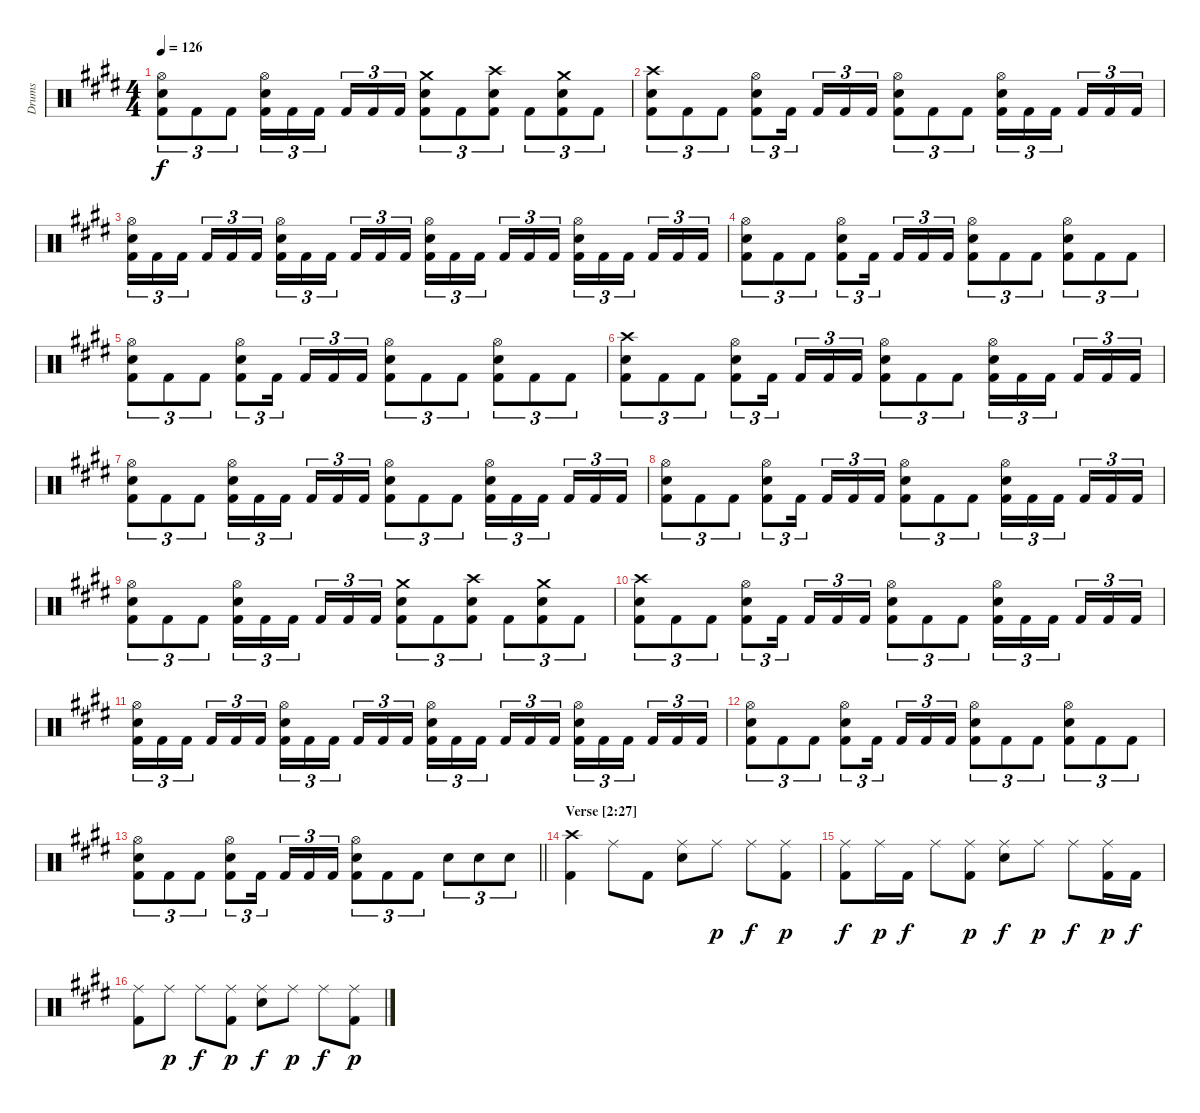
\track ("Drums" "Drums") {instrument percussion}
\staff {score}
\articulation defaults
\ts (4 4)
\tempo 126
\clef neutral
\ks c#minor
("Hi-Hat (open)" "Snare (hit) 2" "Kick (hit) 2").8{tu (3 2) dy f} "Kick (hit) 2".8{tu (3 2)} "Kick (hit) 2".8{tu (3 2)} ("Hi-Hat (open)" "Snare (hit) 2" "Kick (hit) 2").16{tu (3 2)} "Kick (hit) 2".16{tu (3 2)} "Kick (hit) 2".16{tu (3 2) beam splitsecondary} "Kick (hit) 2".16{tu (3 2)} "Kick (hit) 2".16{tu (3 2)} "Kick (hit) 2".16{tu (3 2)} ("Crash medium (hit)" "Snare (hit) 2" "Kick (hit) 2").8{tu (3 2)} "Kick (hit) 2".8{tu (3 2)} ("Crash high (hit)" "Snare (hit) 2" "Kick (hit) 2").8{tu (3 2)} "Kick (hit) 2".8{tu (3 2)} ("Crash medium (hit)" "Snare (hit) 2" "Kick (hit) 2").8{tu (3 2)} "Kick (hit) 2".8{tu (3 2)} |
("Crash high (hit)" "Snare (hit) 2" "Kick (hit) 2").8{tu (3 2)} "Kick (hit) 2".8{tu (3 2)} "Kick (hit) 2".8{tu (3 2)} ("Hi-Hat (open)" "Snare (hit) 2" "Kick (hit) 2").8{tu (3 2)} "Kick (hit) 2".16{tu (3 2) beam splitsecondary} "Kick (hit) 2".16{tu (3 2)} "Kick (hit) 2".16{tu (3 2)} "Kick (hit) 2".16{tu (3 2)} ("Hi-Hat (open)" "Snare (hit) 2" "Kick (hit) 2").8{tu (3 2)} "Kick (hit) 2".8{tu (3 2)} "Kick (hit) 2".8{tu (3 2)} ("Hi-Hat (open)" "Snare (hit) 2" "Kick (hit) 2").16{tu (3 2)} "Kick (hit) 2".16{tu (3 2)} "Kick (hit) 2".16{tu (3 2) beam splitsecondary} "Kick (hit) 2".16{tu (3 2)} "Kick (hit) 2".16{tu (3 2)} "Kick (hit) 2".16{tu (3 2)} |
("Hi-Hat (open)" "Snare (hit) 2" "Kick (hit) 2").16{tu (3 2)} "Kick (hit) 2".16{tu (3 2)} "Kick (hit) 2".16{tu (3 2) beam splitsecondary} "Kick (hit) 2".16{tu (3 2)} "Kick (hit) 2".16{tu (3 2)} "Kick (hit) 2".16{tu (3 2)} ("Hi-Hat (open)" "Snare (hit) 2" "Kick (hit) 2").16{tu (3 2)} "Kick (hit) 2".16{tu (3 2)} "Kick (hit) 2".16{tu (3 2) beam splitsecondary} "Kick (hit) 2".16{tu (3 2)} "Kick (hit) 2".16{tu (3 2)} "Kick (hit) 2".16{tu (3 2)} ("Hi-Hat (open)" "Snare (hit) 2" "Kick (hit) 2").16{tu (3 2)} "Kick (hit) 2".16{tu (3 2)} "Kick (hit) 2".16{tu (3 2) beam splitsecondary} "Kick (hit) 2".16{tu (3 2)} "Kick (hit) 2".16{tu (3 2)} "Kick (hit) 2".16{tu (3 2)} ("Hi-Hat (open)" "Snare (hit) 2" "Kick (hit) 2").16{tu (3 2)} "Kick (hit) 2".16{tu (3 2)} "Kick (hit) 2".16{tu (3 2) beam splitsecondary} "Kick (hit) 2".16{tu (3 2)} "Kick (hit) 2".16{tu (3 2)} "Kick (hit) 2".16{tu (3 2)} |
("Hi-Hat (open)" "Snare (hit) 2" "Kick (hit) 2").8{tu (3 2)} "Kick (hit) 2".8{tu (3 2)} "Kick (hit) 2".8{tu (3 2)} ("Hi-Hat (open)" "Snare (hit) 2" "Kick (hit) 2").8{tu (3 2)} "Kick (hit) 2".16{tu (3 2) beam splitsecondary} "Kick (hit) 2".16{tu (3 2)} "Kick (hit) 2".16{tu (3 2)} "Kick (hit) 2".16{tu (3 2)} ("Hi-Hat (open)" "Snare (hit) 2" "Kick (hit) 2").8{tu (3 2)} "Kick (hit) 2".8{tu (3 2)} "Kick (hit) 2".8{tu (3 2)} ("Hi-Hat (open)" "Snare (hit) 2" "Kick (hit) 2").8{tu (3 2)} "Kick (hit) 2".8{tu (3 2)} "Kick (hit) 2".8{tu (3 2)} |
("Hi-Hat (open)" "Snare (hit) 2" "Kick (hit) 2").8{tu (3 2)} "Kick (hit) 2".8{tu (3 2)} "Kick (hit) 2".8{tu (3 2)} ("Hi-Hat (open)" "Snare (hit) 2" "Kick (hit) 2").8{tu (3 2)} "Kick (hit) 2".16{tu (3 2) beam splitsecondary} "Kick (hit) 2".16{tu (3 2)} "Kick (hit) 2".16{tu (3 2)} "Kick (hit) 2".16{tu (3 2)} ("Hi-Hat (open)" "Snare (hit) 2" "Kick (hit) 2").8{tu (3 2)} "Kick (hit) 2".8{tu (3 2)} "Kick (hit) 2".8{tu (3 2)} ("Hi-Hat (open)" "Snare (hit) 2" "Kick (hit) 2").8{tu (3 2)} "Kick (hit) 2".8{tu (3 2)} "Kick (hit) 2".8{tu (3 2)} |
("Crash high (hit)" "Snare (hit) 2" "Kick (hit) 2").8{tu (3 2)} "Kick (hit) 2".8{tu (3 2)} "Kick (hit) 2".8{tu (3 2)} ("Hi-Hat (open)" "Snare (hit) 2" "Kick (hit) 2").8{tu (3 2)} "Kick (hit) 2".16{tu (3 2) beam splitsecondary} "Kick (hit) 2".16{tu (3 2)} "Kick (hit) 2".16{tu (3 2)} "Kick (hit) 2".16{tu (3 2)} ("Hi-Hat (open)" "Snare (hit) 2" "Kick (hit) 2").8{tu (3 2)} "Kick (hit) 2".8{tu (3 2)} "Kick (hit) 2".8{tu (3 2)} ("Hi-Hat (open)" "Snare (hit) 2" "Kick (hit) 2").16{tu (3 2)} "Kick (hit) 2".16{tu (3 2)} "Kick (hit) 2".16{tu (3 2) beam splitsecondary} "Kick (hit) 2".16{tu (3 2)} "Kick (hit) 2".16{tu (3 2)} "Kick (hit) 2".16{tu (3 2)} |
("Hi-Hat (open)" "Snare (hit) 2" "Kick (hit) 2").8{tu (3 2)} "Kick (hit) 2".8{tu (3 2)} "Kick (hit) 2".8{tu (3 2)} ("Hi-Hat (open)" "Snare (hit) 2" "Kick (hit) 2").16{tu (3 2)} "Kick (hit) 2".16{tu (3 2)} "Kick (hit) 2".16{tu (3 2) beam splitsecondary} "Kick (hit) 2".16{tu (3 2)} "Kick (hit) 2".16{tu (3 2)} "Kick (hit) 2".16{tu (3 2)} ("Hi-Hat (open)" "Snare (hit) 2" "Kick (hit) 2").8{tu (3 2)} "Kick (hit) 2".8{tu (3 2)} "Kick (hit) 2".8{tu (3 2)} ("Hi-Hat (open)" "Snare (hit) 2" "Kick (hit) 2").16{tu (3 2)} "Kick (hit) 2".16{tu (3 2)} "Kick (hit) 2".16{tu (3 2) beam splitsecondary} "Kick (hit) 2".16{tu (3 2)} "Kick (hit) 2".16{tu (3 2)} "Kick (hit) 2".16{tu (3 2)} |
("Hi-Hat (open)" "Snare (hit) 2" "Kick (hit) 2").8{tu (3 2)} "Kick (hit) 2".8{tu (3 2)} "Kick (hit) 2".8{tu (3 2)} ("Hi-Hat (open)" "Snare (hit) 2" "Kick (hit) 2").8{tu (3 2)} "Kick (hit) 2".16{tu (3 2) beam splitsecondary} "Kick (hit) 2".16{tu (3 2)} "Kick (hit) 2".16{tu (3 2)} "Kick (hit) 2".16{tu (3 2)} ("Hi-Hat (open)" "Snare (hit) 2" "Kick (hit) 2").8{tu (3 2)} "Kick (hit) 2".8{tu (3 2)} "Kick (hit) 2".8{tu (3 2)} ("Hi-Hat (open)" "Snare (hit) 2" "Kick (hit) 2").16{tu (3 2)} "Kick (hit) 2".16{tu (3 2)} "Kick (hit) 2".16{tu (3 2) beam splitsecondary} "Kick (hit) 2".16{tu (3 2)} "Kick (hit) 2".16{tu (3 2)} "Kick (hit) 2".16{tu (3 2)} |
("Hi-Hat (open)" "Snare (hit) 2" "Kick (hit) 2").8{tu (3 2)} "Kick (hit) 2".8{tu (3 2)} "Kick (hit) 2".8{tu (3 2)} ("Hi-Hat (open)" "Snare (hit) 2" "Kick (hit) 2").16{tu (3 2)} "Kick (hit) 2".16{tu (3 2)} "Kick (hit) 2".16{tu (3 2) beam splitsecondary} "Kick (hit) 2".16{tu (3 2)} "Kick (hit) 2".16{tu (3 2)} "Kick (hit) 2".16{tu (3 2)} ("Crash medium (hit)" "Snare (hit) 2" "Kick (hit) 2").8{tu (3 2)} "Kick (hit) 2".8{tu (3 2)} ("Crash high (hit)" "Snare (hit) 2" "Kick (hit) 2").8{tu (3 2)} "Kick (hit) 2".8{tu (3 2)} ("Crash medium (hit)" "Snare (hit) 2" "Kick (hit) 2").8{tu (3 2)} "Kick (hit) 2".8{tu (3 2)} |
("Crash high (hit)" "Snare (hit) 2" "Kick (hit) 2").8{tu (3 2)} "Kick (hit) 2".8{tu (3 2)} "Kick (hit) 2".8{tu (3 2)} ("Hi-Hat (open)" "Snare (hit) 2" "Kick (hit) 2").8{tu (3 2)} "Kick (hit) 2".16{tu (3 2) beam splitsecondary} "Kick (hit) 2".16{tu (3 2)} "Kick (hit) 2".16{tu (3 2)} "Kick (hit) 2".16{tu (3 2)} ("Hi-Hat (open)" "Snare (hit) 2" "Kick (hit) 2").8{tu (3 2)} "Kick (hit) 2".8{tu (3 2)} "Kick (hit) 2".8{tu (3 2)} ("Hi-Hat (open)" "Snare (hit) 2" "Kick (hit) 2").16{tu (3 2)} "Kick (hit) 2".16{tu (3 2)} "Kick (hit) 2".16{tu (3 2) beam splitsecondary} "Kick (hit) 2".16{tu (3 2)} "Kick (hit) 2".16{tu (3 2)} "Kick (hit) 2".16{tu (3 2)} |
("Hi-Hat (open)" "Snare (hit) 2" "Kick (hit) 2").16{tu (3 2)} "Kick (hit) 2".16{tu (3 2)} "Kick (hit) 2".16{tu (3 2) beam splitsecondary} "Kick (hit) 2".16{tu (3 2)} "Kick (hit) 2".16{tu (3 2)} "Kick (hit) 2".16{tu (3 2)} ("Hi-Hat (open)" "Snare (hit) 2" "Kick (hit) 2").16{tu (3 2)} "Kick (hit) 2".16{tu (3 2)} "Kick (hit) 2".16{tu (3 2) beam splitsecondary} "Kick (hit) 2".16{tu (3 2)} "Kick (hit) 2".16{tu (3 2)} "Kick (hit) 2".16{tu (3 2)} ("Hi-Hat (open)" "Snare (hit) 2" "Kick (hit) 2").16{tu (3 2)} "Kick (hit) 2".16{tu (3 2)} "Kick (hit) 2".16{tu (3 2) beam splitsecondary} "Kick (hit) 2".16{tu (3 2)} "Kick (hit) 2".16{tu (3 2)} "Kick (hit) 2".16{tu (3 2)} ("Hi-Hat (open)" "Snare (hit) 2" "Kick (hit) 2").16{tu (3 2)} "Kick (hit) 2".16{tu (3 2)} "Kick (hit) 2".16{tu (3 2) beam splitsecondary} "Kick (hit) 2".16{tu (3 2)} "Kick (hit) 2".16{tu (3 2)} "Kick (hit) 2".16{tu (3 2)} |
("Hi-Hat (open)" "Snare (hit) 2" "Kick (hit) 2").8{tu (3 2)} "Kick (hit) 2".8{tu (3 2)} "Kick (hit) 2".8{tu (3 2)} ("Hi-Hat (open)" "Snare (hit) 2" "Kick (hit) 2").8{tu (3 2)} "Kick (hit) 2".16{tu (3 2) beam splitsecondary} "Kick (hit) 2".16{tu (3 2)} "Kick (hit) 2".16{tu (3 2)} "Kick (hit) 2".16{tu (3 2)} ("Hi-Hat (open)" "Snare (hit) 2" "Kick (hit) 2").8{tu (3 2)} "Kick (hit) 2".8{tu (3 2)} "Kick (hit) 2".8{tu (3 2)} ("Hi-Hat (open)" "Snare (hit) 2" "Kick (hit) 2").8{tu (3 2)} "Kick (hit) 2".8{tu (3 2)} "Kick (hit) 2".8{tu (3 2)} |
\barLineRight lightlight
("Hi-Hat (open)" "Snare (hit) 2" "Kick (hit) 2").8{tu (3 2)} "Kick (hit) 2".8{tu (3 2)} "Kick (hit) 2".8{tu (3 2)} ("Hi-Hat (open)" "Snare (hit) 2" "Kick (hit) 2").8{tu (3 2)} "Kick (hit) 2".16{tu (3 2) beam splitsecondary} "Kick (hit) 2".16{tu (3 2)} "Kick (hit) 2".16{tu (3 2)} "Kick (hit) 2".16{tu (3 2)} ("Hi-Hat (open)" "Snare (hit) 2" "Kick (hit) 2").8{tu (3 2)} "Kick (hit) 2".8{tu (3 2)} "Kick (hit) 2".8{tu (3 2)} "Snare (hit) 2".8{tu (3 2)} "Snare (hit) 2".8{tu (3 2)} "Snare (hit) 2".8{tu (3 2)} |
\section ("" "Verse [2:27]")
("Crash high (hit)" "Kick (hit) 2").4 "Ride (middle)".8 "Kick (hit) 2".8 ("Ride (middle)" "Snare (hit) 2").8 "Ride (middle)".8{dy p} "Ride (middle)".8{dy f} ("Ride (middle)" "Kick (hit) 2").8{dy p} |
("Ride (middle)" "Kick (hit) 2").8{dy f} "Ride (middle)".16{dy p} "Kick (hit) 2".16{dy f} "Ride (middle)".8 ("Ride (middle)" "Kick (hit) 2").8{dy p} ("Ride (middle)" "Snare (hit) 2").8{dy f} "Ride (middle)".8{dy p} "Ride (middle)".8{dy f} ("Ride (middle)" "Kick (hit) 2").16{dy p} "Kick (hit) 2".16{dy f} |
("Ride (middle)" "Kick (hit) 2").8 "Ride (middle)".8{dy p} "Ride (middle)".8{dy f} ("Ride (middle)" "Kick (hit) 2").8{dy p} ("Ride (middle)" "Snare (hit) 2").8{dy f} "Ride (middle)".8{dy p} "Ride (middle)".8{dy f} ("Ride (middle)" "Kick (hit) 2").8{dy p}
